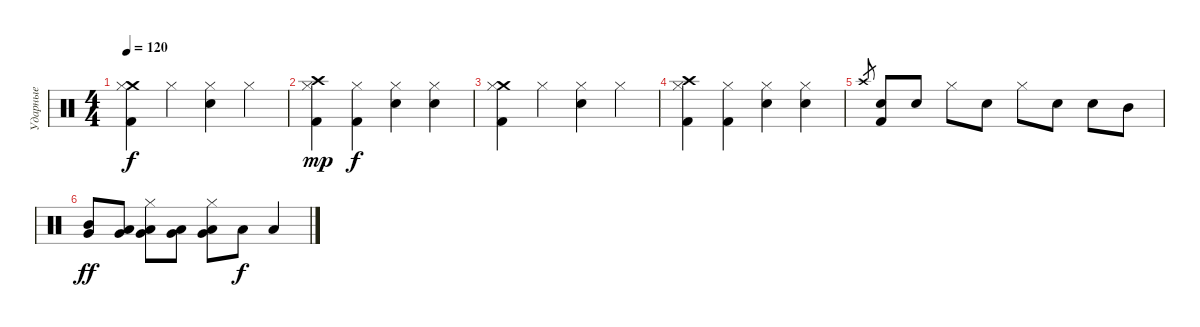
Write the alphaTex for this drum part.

\track ("Ударные" "Ударные") {instrument percussion}
\staff {score}
\articulation defaults
\ts (4 4)
\tempo 120
\clef neutral
\ks c
("Crash medium (hit)" "Hi-Hat (closed)" "Kick (hit) 2").4{dy f} "Hi-Hat (closed)".4 ("Snare (hit) 2" "Hi-Hat (closed)").4 "Hi-Hat (closed)".4 |
("Crash high (hit)" "Hi-Hat (closed)" "Kick (hit) 2").4{dy mp} ("Hi-Hat (closed)" "Kick (hit) 2").4{dy f} ("Snare (hit) 2" "Hi-Hat (closed)").4 ("Snare (hit) 2" "Hi-Hat (closed)").4 |
("Crash medium (hit)" "Hi-Hat (closed)" "Kick (hit) 2").4 "Hi-Hat (closed)".4 ("Snare (hit) 2" "Hi-Hat (closed)").4 "Hi-Hat (closed)".4 |
("Crash high (hit)" "Hi-Hat (closed)" "Kick (hit) 2").4 ("Hi-Hat (closed)" "Kick (hit) 2").4 ("Snare (hit) 2" "Hi-Hat (closed)").4 ("Snare (hit) 2" "Hi-Hat (closed)").4 |
"Crash high (hit)".8{gr} ("Snare (hit) 2" "Kick (hit) 2").8 "Snare (hit) 2".8 "Hi-Hat (closed)".8 "Snare (hit) 2".8 "Hi-Hat (closed)".8 "Snare (hit) 2".8 "Snare (hit) 2".8 "Mid Tom (hit)".8 |
("Mid Tom (hit)" "Very Low Tom (hit)").8{dy ff} ("Low Tom (hit)" "Very Low Tom (hit)").8 ("Hi-Hat (closed)" "Low Tom (hit)" "Very Low Tom (hit)").8 ("Very Low Tom (hit)" "Low Floor Tom (hit)").8 ("Hi-Hat (closed)" "Very Low Tom (hit)" "Low Floor Tom (hit)").8 "Low Floor Tom (hit)".8{dy f} "Low Floor Tom (hit)".4
